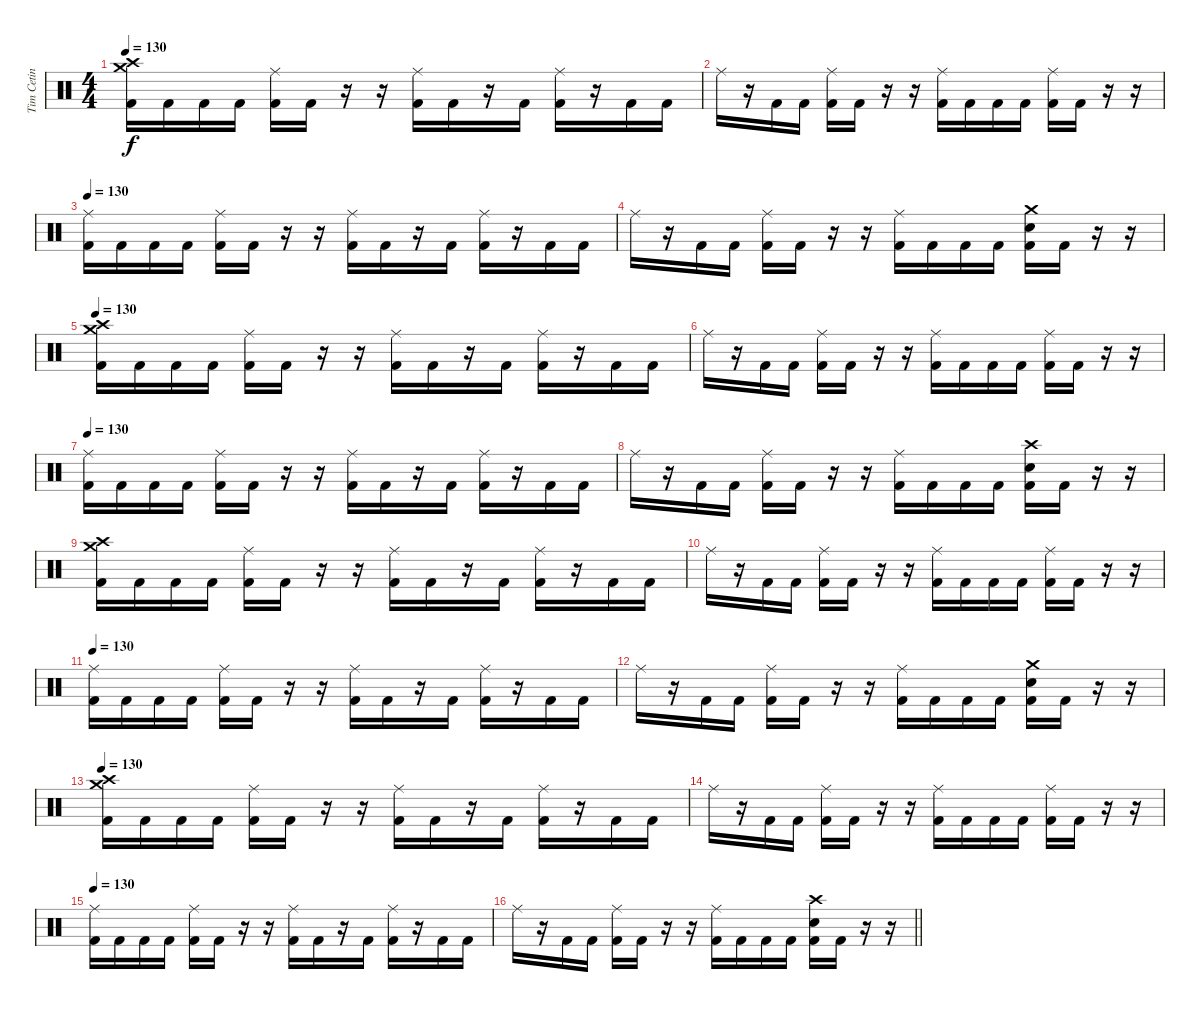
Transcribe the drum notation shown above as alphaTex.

\track ("Tim Cetin" "Tim Cetin") {instrument percussion}
\staff {score}
\articulation defaults
\ts (4 4)
\tempo 130
\clef neutral
\ks c
("Crash medium (hit)" "Crash high (hit)" "Kick (hit) 2").16{dy f} "Kick (hit) 2".16 "Kick (hit) 2".16 "Kick (hit) 2".16 ("Ride (middle)" "Kick (hit) 2").16 "Kick (hit) 2".16 r.16 r.16 ("Ride (middle)" "Kick (hit) 2").16 "Kick (hit) 2".16 r.16 "Kick (hit) 2".16 ("Ride (middle)" "Kick (hit) 2").16 r.16 "Kick (hit) 2".16 "Kick (hit) 2".16 |
"Ride (middle)".16 r.16 "Kick (hit) 2".16 "Kick (hit) 2".16 ("Ride (middle)" "Kick (hit) 2").16 "Kick (hit) 2".16 r.16 r.16 ("Ride (middle)" "Kick (hit) 2").16 "Kick (hit) 2".16 "Kick (hit) 2".16 "Kick (hit) 2".16 ("Ride (middle)" "Kick (hit) 2").16 "Kick (hit) 2".16 r.16 r.16 |
\tempo 130
("Ride (middle)" "Kick (hit) 2").16 "Kick (hit) 2".16 "Kick (hit) 2".16 "Kick (hit) 2".16 ("Ride (middle)" "Kick (hit) 2").16 "Kick (hit) 2".16 r.16 r.16 ("Ride (middle)" "Kick (hit) 2").16 "Kick (hit) 2".16 r.16 "Kick (hit) 2".16 ("Ride (middle)" "Kick (hit) 2").16 r.16 "Kick (hit) 2".16 "Kick (hit) 2".16 |
"Ride (middle)".16 r.16 "Kick (hit) 2".16 "Kick (hit) 2".16 ("Ride (middle)" "Kick (hit) 2").16 "Kick (hit) 2".16 r.16 r.16 ("Ride (middle)" "Kick (hit) 2").16 "Kick (hit) 2".16 "Kick (hit) 2".16 "Kick (hit) 2".16 ("Crash medium (hit)" "Electric Snare (hit)" "Kick (hit) 2").16 "Kick (hit) 2".16 r.16 r.16 |
\tempo 130
("Crash high (hit)" "Crash medium (hit)" "Kick (hit) 2").16 "Kick (hit) 2".16 "Kick (hit) 2".16 "Kick (hit) 2".16 ("Ride (middle)" "Kick (hit) 2").16 "Kick (hit) 2".16 r.16 r.16 ("Ride (middle)" "Kick (hit) 2").16 "Kick (hit) 2".16 r.16 "Kick (hit) 2".16 ("Ride (middle)" "Kick (hit) 2").16 r.16 "Kick (hit) 2".16 "Kick (hit) 2".16 |
"Ride (middle)".16 r.16 "Kick (hit) 2".16 "Kick (hit) 2".16 ("Ride (middle)" "Kick (hit) 2").16 "Kick (hit) 2".16 r.16 r.16 ("Ride (middle)" "Kick (hit) 2").16 "Kick (hit) 2".16 "Kick (hit) 2".16 "Kick (hit) 2".16 ("Ride (middle)" "Kick (hit) 2").16 "Kick (hit) 2".16 r.16 r.16 |
\tempo 130
("Ride (middle)" "Kick (hit) 2").16 "Kick (hit) 2".16 "Kick (hit) 2".16 "Kick (hit) 2".16 ("Ride (middle)" "Kick (hit) 2").16 "Kick (hit) 2".16 r.16 r.16 ("Ride (middle)" "Kick (hit) 2").16 "Kick (hit) 2".16 r.16 "Kick (hit) 2".16 ("Ride (middle)" "Kick (hit) 2").16 r.16 "Kick (hit) 2".16 "Kick (hit) 2".16 |
"Ride (middle)".16 r.16 "Kick (hit) 2".16 "Kick (hit) 2".16 ("Ride (middle)" "Kick (hit) 2").16 "Kick (hit) 2".16 r.16 r.16 ("Ride (middle)" "Kick (hit) 2").16 "Kick (hit) 2".16 "Kick (hit) 2".16 "Kick (hit) 2".16 ("Crash high (hit)" "Electric Snare (hit)" "Kick (hit) 2").16 "Kick (hit) 2".16 r.16 r.16 |
("Crash medium (hit)" "Crash high (hit)" "Kick (hit) 2").16 "Kick (hit) 2".16 "Kick (hit) 2".16 "Kick (hit) 2".16 ("Ride (middle)" "Kick (hit) 2").16 "Kick (hit) 2".16 r.16 r.16 ("Ride (middle)" "Kick (hit) 2").16 "Kick (hit) 2".16 r.16 "Kick (hit) 2".16 ("Ride (middle)" "Kick (hit) 2").16 r.16 "Kick (hit) 2".16 "Kick (hit) 2".16 |
"Ride (middle)".16 r.16 "Kick (hit) 2".16 "Kick (hit) 2".16 ("Ride (middle)" "Kick (hit) 2").16 "Kick (hit) 2".16 r.16 r.16 ("Ride (middle)" "Kick (hit) 2").16 "Kick (hit) 2".16 "Kick (hit) 2".16 "Kick (hit) 2".16 ("Ride (middle)" "Kick (hit) 2").16 "Kick (hit) 2".16 r.16 r.16 |
\tempo 130
("Ride (middle)" "Kick (hit) 2").16 "Kick (hit) 2".16 "Kick (hit) 2".16 "Kick (hit) 2".16 ("Ride (middle)" "Kick (hit) 2").16 "Kick (hit) 2".16 r.16 r.16 ("Ride (middle)" "Kick (hit) 2").16 "Kick (hit) 2".16 r.16 "Kick (hit) 2".16 ("Ride (middle)" "Kick (hit) 2").16 r.16 "Kick (hit) 2".16 "Kick (hit) 2".16 |
"Ride (middle)".16 r.16 "Kick (hit) 2".16 "Kick (hit) 2".16 ("Ride (middle)" "Kick (hit) 2").16 "Kick (hit) 2".16 r.16 r.16 ("Ride (middle)" "Kick (hit) 2").16 "Kick (hit) 2".16 "Kick (hit) 2".16 "Kick (hit) 2".16 ("Crash medium (hit)" "Electric Snare (hit)" "Kick (hit) 2").16 "Kick (hit) 2".16 r.16 r.16 |
\tempo 130
("Crash medium (hit)" "Crash high (hit)" "Kick (hit) 2").16 "Kick (hit) 2".16 "Kick (hit) 2".16 "Kick (hit) 2".16 ("Ride (middle)" "Kick (hit) 2").16 "Kick (hit) 2".16 r.16 r.16 ("Ride (middle)" "Kick (hit) 2").16 "Kick (hit) 2".16 r.16 "Kick (hit) 2".16 ("Ride (middle)" "Kick (hit) 2").16 r.16 "Kick (hit) 2".16 "Kick (hit) 2".16 |
"Ride (middle)".16 r.16 "Kick (hit) 2".16 "Kick (hit) 2".16 ("Ride (middle)" "Kick (hit) 2").16 "Kick (hit) 2".16 r.16 r.16 ("Ride (middle)" "Kick (hit) 2").16 "Kick (hit) 2".16 "Kick (hit) 2".16 "Kick (hit) 2".16 ("Ride (middle)" "Kick (hit) 2").16 "Kick (hit) 2".16 r.16 r.16 |
\tempo 130
("Ride (middle)" "Kick (hit) 2").16 "Kick (hit) 2".16 "Kick (hit) 2".16 "Kick (hit) 2".16 ("Ride (middle)" "Kick (hit) 2").16 "Kick (hit) 2".16 r.16 r.16 ("Ride (middle)" "Kick (hit) 2").16 "Kick (hit) 2".16 r.16 "Kick (hit) 2".16 ("Ride (middle)" "Kick (hit) 2").16 r.16 "Kick (hit) 2".16 "Kick (hit) 2".16 |
\barLineRight lightlight "Ride (middle)".16
r.16 "Kick (hit) 2".16 "Kick (hit) 2".16 ("Ride (middle)" "Kick (hit) 2").16 "Kick (hit) 2".16 r.16 r.16 ("Ride (middle)" "Kick (hit) 2").16 "Kick (hit) 2".16 "Kick (hit) 2".16 "Kick (hit) 2".16 ("Crash high (hit)" "Electric Snare (hit)" "Kick (hit) 2").16 "Kick (hit) 2".16 r.16 r.16
